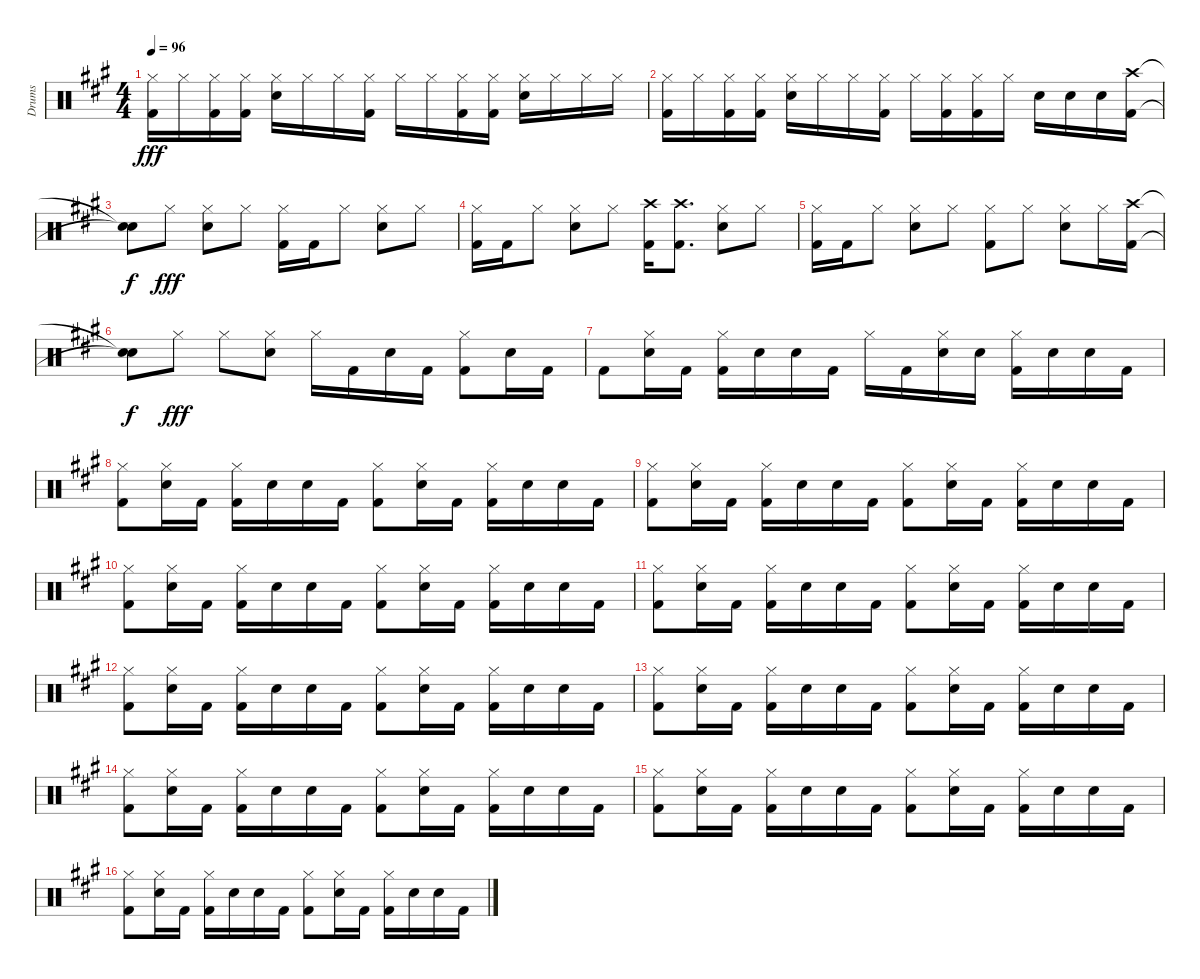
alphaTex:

\track ("Drums" "Drums") {instrument percussion}
\staff {score}
\articulation defaults
\ts (4 4)
\tempo 96
\clef neutral
\ks a
("Hi-Hat (closed)" "Kick (hit) 2").16{dy fff} "Hi-Hat (closed)".16 ("Hi-Hat (closed)" "Kick (hit) 2").16 ("Hi-Hat (closed)" "Kick (hit) 2").16 ("Hi-Hat (closed)" "Electric Snare (hit)").16 "Hi-Hat (closed)".16 "Hi-Hat (closed)".16 ("Hi-Hat (closed)" "Kick (hit) 2").16 "Hi-Hat (closed)".16 "Hi-Hat (closed)".16 ("Kick (hit) 2" "Hi-Hat (closed)").16 ("Kick (hit) 2" "Hi-Hat (closed)").16 ("Electric Snare (hit)" "Hi-Hat (closed)").16 "Hi-Hat (closed)".16 "Hi-Hat (closed)".16 "Hi-Hat (closed)".16 |
("Hi-Hat (closed)" "Kick (hit) 2").16 "Hi-Hat (closed)".16 ("Hi-Hat (closed)" "Kick (hit) 2").16 ("Hi-Hat (closed)" "Kick (hit) 2").16 ("Hi-Hat (closed)" "Electric Snare (hit)").16 "Hi-Hat (closed)".16 "Hi-Hat (closed)".16 ("Hi-Hat (closed)" "Kick (hit) 2").16 "Hi-Hat (closed)".16 ("Kick (hit) 2" "Hi-Hat (closed)").16 ("Kick (hit) 2" "Hi-Hat (closed)").16 "Hi-Hat (closed)".16 "Electric Snare (hit)".16 "Electric Snare (hit)".16 "Electric Snare (hit)".16 ("Crash high (hit)" "Kick (hit) 2").16 |
("Snare (hit)"{t} "Snare (hit)"{t}).8{dy f} "Hi-Hat (closed)".8{dy fff} ("Electric Snare (hit)" "Hi-Hat (closed)").8 "Hi-Hat (closed)".8 ("Kick (hit) 2" "Hi-Hat (closed)").16 "Kick (hit) 2".16 "Hi-Hat (closed)".8 ("Electric Snare (hit)" "Hi-Hat (closed)").8 "Hi-Hat (closed)".8 |
("Hi-Hat (closed)" "Kick (hit) 2").16 "Kick (hit) 2".16 "Hi-Hat (closed)".8 ("Electric Snare (hit)" "Hi-Hat (closed)").8 "Hi-Hat (closed)".8 ("Kick (hit) 2" "Crash high (hit)").16 ("Kick (hit) 2" "Crash high (hit)").8{d} ("Electric Snare (hit)" "Hi-Hat (closed)").8 "Hi-Hat (closed)".8 |
("Hi-Hat (closed)" "Kick (hit) 2").16 "Kick (hit) 2".16 "Hi-Hat (closed)".8 ("Electric Snare (hit)" "Hi-Hat (closed)").8 "Hi-Hat (closed)".8 ("Kick (hit) 2" "Hi-Hat (closed)").8 "Hi-Hat (closed)".8 ("Electric Snare (hit)" "Hi-Hat (closed)").8 "Hi-Hat (closed)".16 ("Kick (hit) 2" "Crash high (hit)").16 |
("Snare (hit)"{t} "Snare (hit)"{t}).8{dy f} "Hi-Hat (closed)".8{dy fff} "Hi-Hat (closed)".8 ("Electric Snare (hit)" "Hi-Hat (closed)").8 "Hi-Hat (closed)".16 "Kick (hit) 2".16 "Electric Snare (hit)".16 "Kick (hit) 2".16 ("Hi-Hat (closed)" "Kick (hit) 2").8 "Electric Snare (hit)".16 "Kick (hit) 2".16 |
"Kick (hit) 2".8 ("Hi-Hat (closed)" "Electric Snare (hit)").16 "Kick (hit) 2".16 ("Hi-Hat (closed)" "Kick (hit) 2").16 "Electric Snare (hit)".16 "Electric Snare (hit)".16 "Kick (hit) 2".16 "Hi-Hat (closed)".16 "Kick (hit) 2".16 ("Hi-Hat (closed)" "Electric Snare (hit)").16 "Electric Snare (hit)".16 ("Kick (hit) 2" "Hi-Hat (closed)").16 "Electric Snare (hit)".16 "Electric Snare (hit)".16 "Kick (hit) 2".16 |
("Hi-Hat (closed)" "Kick (hit) 2").8 ("Electric Snare (hit)" "Hi-Hat (closed)").16 "Kick (hit) 2".16 ("Hi-Hat (closed)" "Kick (hit) 2").16 "Electric Snare (hit)".16 "Electric Snare (hit)".16 "Kick (hit) 2".16 ("Kick (hit) 2" "Hi-Hat (closed)").8 ("Electric Snare (hit)" "Hi-Hat (closed)").16 "Kick (hit) 2".16 ("Hi-Hat (closed)" "Kick (hit) 2").16 "Electric Snare (hit)".16 "Electric Snare (hit)".16 "Kick (hit) 2".16 |
("Hi-Hat (closed)" "Kick (hit) 2").8 ("Hi-Hat (closed)" "Electric Snare (hit)").16 "Kick (hit) 2".16 ("Hi-Hat (closed)" "Kick (hit) 2").16 "Electric Snare (hit)".16 "Electric Snare (hit)".16 "Kick (hit) 2".16 ("Kick (hit) 2" "Hi-Hat (closed)").8 ("Hi-Hat (closed)" "Electric Snare (hit)").16 "Kick (hit) 2".16 ("Kick (hit) 2" "Hi-Hat (closed)").16 "Electric Snare (hit)".16 "Electric Snare (hit)".16 "Kick (hit) 2".16 |
("Hi-Hat (closed)" "Kick (hit) 2").8 ("Electric Snare (hit)" "Hi-Hat (closed)").16 "Kick (hit) 2".16 ("Hi-Hat (closed)" "Kick (hit) 2").16 "Electric Snare (hit)".16 "Electric Snare (hit)".16 "Kick (hit) 2".16 ("Kick (hit) 2" "Hi-Hat (closed)").8 ("Electric Snare (hit)" "Hi-Hat (closed)").16 "Kick (hit) 2".16 ("Hi-Hat (closed)" "Kick (hit) 2").16 "Electric Snare (hit)".16 "Electric Snare (hit)".16 "Kick (hit) 2".16 |
("Hi-Hat (closed)" "Kick (hit) 2").8 ("Hi-Hat (closed)" "Electric Snare (hit)").16 "Kick (hit) 2".16 ("Hi-Hat (closed)" "Kick (hit) 2").16 "Electric Snare (hit)".16 "Electric Snare (hit)".16 "Kick (hit) 2".16 ("Kick (hit) 2" "Hi-Hat (closed)").8 ("Hi-Hat (closed)" "Electric Snare (hit)").16 "Kick (hit) 2".16 ("Kick (hit) 2" "Hi-Hat (closed)").16 "Electric Snare (hit)".16 "Electric Snare (hit)".16 "Kick (hit) 2".16 |
("Hi-Hat (closed)" "Kick (hit) 2").8 ("Electric Snare (hit)" "Hi-Hat (closed)").16 "Kick (hit) 2".16 ("Hi-Hat (closed)" "Kick (hit) 2").16 "Electric Snare (hit)".16 "Electric Snare (hit)".16 "Kick (hit) 2".16 ("Kick (hit) 2" "Hi-Hat (closed)").8 ("Electric Snare (hit)" "Hi-Hat (closed)").16 "Kick (hit) 2".16 ("Hi-Hat (closed)" "Kick (hit) 2").16 "Electric Snare (hit)".16 "Electric Snare (hit)".16 "Kick (hit) 2".16 |
("Hi-Hat (closed)" "Kick (hit) 2").8 ("Hi-Hat (closed)" "Electric Snare (hit)").16 "Kick (hit) 2".16 ("Hi-Hat (closed)" "Kick (hit) 2").16 "Electric Snare (hit)".16 "Electric Snare (hit)".16 "Kick (hit) 2".16 ("Kick (hit) 2" "Hi-Hat (closed)").8 ("Hi-Hat (closed)" "Electric Snare (hit)").16 "Kick (hit) 2".16 ("Kick (hit) 2" "Hi-Hat (closed)").16 "Electric Snare (hit)".16 "Electric Snare (hit)".16 "Kick (hit) 2".16 |
("Hi-Hat (closed)" "Kick (hit) 2").8 ("Electric Snare (hit)" "Hi-Hat (closed)").16 "Kick (hit) 2".16 ("Hi-Hat (closed)" "Kick (hit) 2").16 "Electric Snare (hit)".16 "Electric Snare (hit)".16 "Kick (hit) 2".16 ("Kick (hit) 2" "Hi-Hat (closed)").8 ("Electric Snare (hit)" "Hi-Hat (closed)").16 "Kick (hit) 2".16 ("Hi-Hat (closed)" "Kick (hit) 2").16 "Electric Snare (hit)".16 "Electric Snare (hit)".16 "Kick (hit) 2".16 |
("Hi-Hat (closed)" "Kick (hit) 2").8 ("Hi-Hat (closed)" "Electric Snare (hit)").16 "Kick (hit) 2".16 ("Hi-Hat (closed)" "Kick (hit) 2").16 "Electric Snare (hit)".16 "Electric Snare (hit)".16 "Kick (hit) 2".16 ("Kick (hit) 2" "Hi-Hat (closed)").8 ("Hi-Hat (closed)" "Electric Snare (hit)").16 "Kick (hit) 2".16 ("Kick (hit) 2" "Hi-Hat (closed)").16 "Electric Snare (hit)".16 "Electric Snare (hit)".16 "Kick (hit) 2".16 |
("Hi-Hat (closed)" "Kick (hit) 2").8 ("Electric Snare (hit)" "Hi-Hat (closed)").16 "Kick (hit) 2".16 ("Hi-Hat (closed)" "Kick (hit) 2").16 "Electric Snare (hit)".16 "Electric Snare (hit)".16 "Kick (hit) 2".16 ("Kick (hit) 2" "Hi-Hat (closed)").8 ("Electric Snare (hit)" "Hi-Hat (closed)").16 "Kick (hit) 2".16 ("Hi-Hat (closed)" "Kick (hit) 2").16 "Electric Snare (hit)".16 "Electric Snare (hit)".16 "Kick (hit) 2".16
